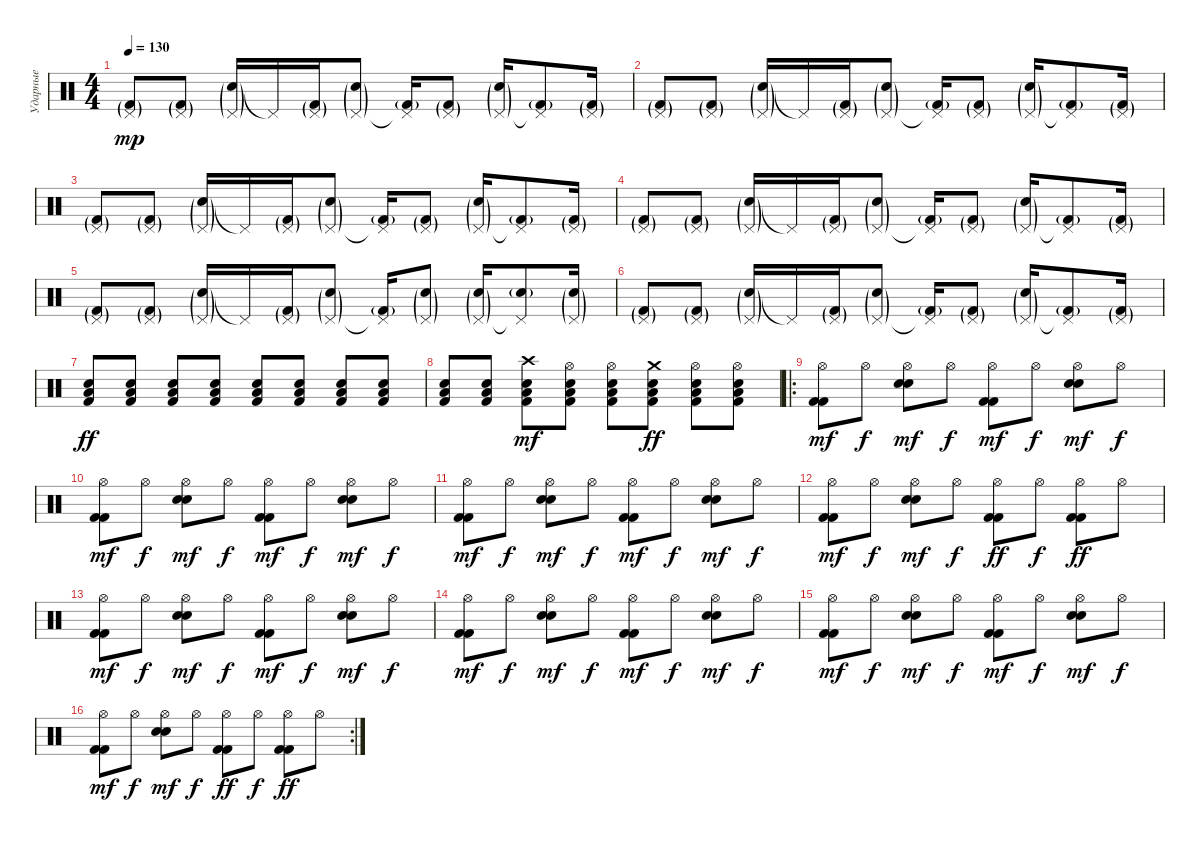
\track ("Ударные" "Ударные") {instrument percussion}
\staff {score}
\articulation defaults
\ts (4 4)
\tempo 130
\clef neutral
\ks c
("Kick (hit) 2"{g} "Pedal Hi-Hat (hit)"{g}).8{dy mp} ("Kick (hit) 2"{g} "Pedal Hi-Hat (hit)"{g}).8 ("Electric Snare (hit)"{g} "Pedal Hi-Hat (hit)"{g}).16 "Pedal Hi-Hat (hit)"{t}.16 ("Kick (hit) 2"{g} "Pedal Hi-Hat (hit)"{g}).16 ("Electric Snare (hit)"{g} "Pedal Hi-Hat (hit)"{g}).8 ("Kick (hit) 2"{g} "Pedal Hi-Hat (hit)"{t}).16 ("Kick (hit) 2"{g} "Pedal Hi-Hat (hit)"{g}).8 ("Electric Snare (hit)"{g} "Pedal Hi-Hat (hit)"{g}).16 ("Kick (hit) 2"{g} "Pedal Hi-Hat (hit)"{t}).8 ("Kick (hit) 2"{g} "Pedal Hi-Hat (hit)"{g}).16 |
("Kick (hit) 2"{g} "Pedal Hi-Hat (hit)"{g}).8 ("Kick (hit) 2"{g} "Pedal Hi-Hat (hit)"{g}).8 ("Electric Snare (hit)"{g} "Pedal Hi-Hat (hit)"{g}).16 "Pedal Hi-Hat (hit)"{t}.16 ("Kick (hit) 2"{g} "Pedal Hi-Hat (hit)"{g}).16 ("Electric Snare (hit)"{g} "Pedal Hi-Hat (hit)"{g}).8 ("Kick (hit) 2"{g} "Pedal Hi-Hat (hit)"{t}).16 ("Kick (hit) 2"{g} "Pedal Hi-Hat (hit)"{g}).8 ("Electric Snare (hit)"{g} "Pedal Hi-Hat (hit)"{g}).16 ("Kick (hit) 2"{g} "Pedal Hi-Hat (hit)"{t}).8 ("Kick (hit) 2"{g} "Pedal Hi-Hat (hit)"{g}).16 |
("Kick (hit) 2"{g} "Pedal Hi-Hat (hit)"{g}).8 ("Kick (hit) 2"{g} "Pedal Hi-Hat (hit)"{g}).8 ("Electric Snare (hit)"{g} "Pedal Hi-Hat (hit)"{g}).16 "Pedal Hi-Hat (hit)"{t}.16 ("Kick (hit) 2"{g} "Pedal Hi-Hat (hit)"{g}).16 ("Electric Snare (hit)"{g} "Pedal Hi-Hat (hit)"{g}).8 ("Kick (hit) 2"{g} "Pedal Hi-Hat (hit)"{t}).16 ("Kick (hit) 2"{g} "Pedal Hi-Hat (hit)"{g}).8 ("Electric Snare (hit)"{g} "Pedal Hi-Hat (hit)"{g}).16 ("Kick (hit) 2"{g} "Pedal Hi-Hat (hit)"{t}).8 ("Kick (hit) 2"{g} "Pedal Hi-Hat (hit)"{g}).16 |
("Kick (hit) 2"{g} "Pedal Hi-Hat (hit)"{g}).8 ("Kick (hit) 2"{g} "Pedal Hi-Hat (hit)"{g}).8 ("Electric Snare (hit)"{g} "Pedal Hi-Hat (hit)"{g}).16 "Pedal Hi-Hat (hit)"{t}.16 ("Kick (hit) 2"{g} "Pedal Hi-Hat (hit)"{g}).16 ("Electric Snare (hit)"{g} "Pedal Hi-Hat (hit)"{g}).8 ("Kick (hit) 2"{g} "Pedal Hi-Hat (hit)"{t}).16 ("Kick (hit) 2"{g} "Pedal Hi-Hat (hit)"{g}).8 ("Electric Snare (hit)"{g} "Pedal Hi-Hat (hit)"{g}).16 ("Kick (hit) 2"{g} "Pedal Hi-Hat (hit)"{t}).8 ("Kick (hit) 2"{g} "Pedal Hi-Hat (hit)"{g}).16 |
("Kick (hit) 2"{g} "Pedal Hi-Hat (hit)"{g}).8 ("Kick (hit) 2"{g} "Pedal Hi-Hat (hit)"{g}).8 ("Electric Snare (hit)"{g} "Pedal Hi-Hat (hit)"{g}).16 "Pedal Hi-Hat (hit)"{t}.16 ("Kick (hit) 2"{g} "Pedal Hi-Hat (hit)"{g}).16 ("Electric Snare (hit)"{g} "Pedal Hi-Hat (hit)"{g}).8 ("Kick (hit) 2"{g} "Pedal Hi-Hat (hit)"{t}).16 ("Electric Snare (hit)"{g} "Pedal Hi-Hat (hit)"{g}).8 ("Electric Snare (hit)"{g} "Pedal Hi-Hat (hit)"{g}).16 ("Electric Snare (hit)"{g} "Pedal Hi-Hat (hit)"{t}).8 ("Electric Snare (hit)"{g} "Pedal Hi-Hat (hit)"{g}).16 |
("Kick (hit) 2"{g} "Pedal Hi-Hat (hit)"{g}).8 ("Kick (hit) 2"{g} "Pedal Hi-Hat (hit)"{g}).8 ("Electric Snare (hit)"{g} "Pedal Hi-Hat (hit)"{g}).16 "Pedal Hi-Hat (hit)"{t}.16 ("Kick (hit) 2"{g} "Pedal Hi-Hat (hit)"{g}).16 ("Electric Snare (hit)"{g} "Pedal Hi-Hat (hit)"{g}).8 ("Kick (hit) 2"{g} "Pedal Hi-Hat (hit)"{t}).16 ("Kick (hit) 2"{g} "Pedal Hi-Hat (hit)"{g}).8 ("Electric Snare (hit)"{g} "Pedal Hi-Hat (hit)"{g}).16 ("Kick (hit) 2"{g} "Pedal Hi-Hat (hit)"{t}).8 ("Kick (hit) 2"{g} "Pedal Hi-Hat (hit)"{g}).16 |
("Electric Snare (hit)" "Kick (hit) 2" "Low Floor Tom (hit)").8{dy ff volume 3} ("Electric Snare (hit)" "Kick (hit) 2" "Low Floor Tom (hit)").8{volume 16} ("Electric Snare (hit)" "Kick (hit) 2" "Low Floor Tom (hit)").8 ("Electric Snare (hit)" "Kick (hit) 2" "Low Floor Tom (hit)").8 ("Electric Snare (hit)" "Kick (hit) 2" "Low Floor Tom (hit)").8 ("Electric Snare (hit)" "Kick (hit) 2" "Low Floor Tom (hit)").8 ("Electric Snare (hit)" "Kick (hit) 2" "Low Floor Tom (hit)").8 ("Electric Snare (hit)" "Kick (hit) 2" "Low Floor Tom (hit)").8 |
("Electric Snare (hit)" "Kick (hit) 2" "Low Floor Tom (hit)").8 ("Electric Snare (hit)" "Kick (hit) 2" "Low Floor Tom (hit)").8 ("Electric Snare (hit)" "Kick (hit) 2" "Low Floor Tom (hit)" "Crash high (hit)").8{dy mf} ("Electric Snare (hit)" "Kick (hit) 2" "Low Floor Tom (hit)" "Hi-Hat (open)").8 ("Electric Snare (hit)" "Kick (hit) 2" "Low Floor Tom (hit)" "Hi-Hat (open)").8 ("Electric Snare (hit)" "Kick (hit) 2" "Low Floor Tom (hit)" "Crash medium (hit)").8{dy ff} ("Electric Snare (hit)" "Kick (hit) 2" "Low Floor Tom (hit)" "Hi-Hat (open)").8 ("Electric Snare (hit)" "Kick (hit) 2" "Low Floor Tom (hit)" "Hi-Hat (open)").8 |
\ro
("Kick (hit) 2" "Kick (hit) 2" "Hi-Hat (open)").8{dy mf} "Hi-Hat (open)".8{dy f} ("Electric Snare (hit)" "Snare (hit) 2" "Hi-Hat (open)").8{dy mf} "Hi-Hat (open)".8{dy f} ("Kick (hit) 2" "Kick (hit) 2" "Hi-Hat (open)").8{dy mf} "Hi-Hat (open)".8{dy f} ("Electric Snare (hit)" "Snare (hit) 2" "Hi-Hat (open)").8{dy mf} "Hi-Hat (open)".8{dy f} |
("Kick (hit) 2" "Kick (hit) 2" "Hi-Hat (open)").8{dy mf} "Hi-Hat (open)".8{dy f} ("Electric Snare (hit)" "Snare (hit) 2" "Hi-Hat (open)").8{dy mf} "Hi-Hat (open)".8{dy f} ("Kick (hit) 2" "Kick (hit) 2" "Hi-Hat (open)").8{dy mf} "Hi-Hat (open)".8{dy f} ("Electric Snare (hit)" "Snare (hit) 2" "Hi-Hat (open)").8{dy mf} "Hi-Hat (open)".8{dy f} |
("Kick (hit) 2" "Kick (hit) 2" "Hi-Hat (open)").8{dy mf} "Hi-Hat (open)".8{dy f} ("Electric Snare (hit)" "Snare (hit) 2" "Hi-Hat (open)").8{dy mf} "Hi-Hat (open)".8{dy f} ("Kick (hit) 2" "Kick (hit) 2" "Hi-Hat (open)").8{dy mf} "Hi-Hat (open)".8{dy f} ("Electric Snare (hit)" "Snare (hit) 2" "Hi-Hat (open)").8{dy mf} "Hi-Hat (open)".8{dy f} |
("Kick (hit) 2" "Kick (hit) 2" "Hi-Hat (open)").8{dy mf} "Hi-Hat (open)".8{dy f} ("Electric Snare (hit)" "Snare (hit) 2" "Hi-Hat (open)").8{dy mf} "Hi-Hat (open)".8{dy f} ("Kick (hit) 2" "Kick (hit) 2" "Hi-Hat (open)").8{dy ff} "Hi-Hat (open)".8{dy f} ("Kick (hit) 2" "Kick (hit) 2" "Hi-Hat (open)").8{dy ff} "Hi-Hat (open)".8 |
("Kick (hit) 2" "Kick (hit) 2" "Hi-Hat (open)").8{dy mf} "Hi-Hat (open)".8{dy f} ("Electric Snare (hit)" "Snare (hit) 2" "Hi-Hat (open)").8{dy mf} "Hi-Hat (open)".8{dy f} ("Kick (hit) 2" "Kick (hit) 2" "Hi-Hat (open)").8{dy mf} "Hi-Hat (open)".8{dy f} ("Electric Snare (hit)" "Snare (hit) 2" "Hi-Hat (open)").8{dy mf} "Hi-Hat (open)".8{dy f} |
("Kick (hit) 2" "Kick (hit) 2" "Hi-Hat (open)").8{dy mf} "Hi-Hat (open)".8{dy f} ("Electric Snare (hit)" "Snare (hit) 2" "Hi-Hat (open)").8{dy mf} "Hi-Hat (open)".8{dy f} ("Kick (hit) 2" "Kick (hit) 2" "Hi-Hat (open)").8{dy mf} "Hi-Hat (open)".8{dy f} ("Electric Snare (hit)" "Snare (hit) 2" "Hi-Hat (open)").8{dy mf} "Hi-Hat (open)".8{dy f} |
("Kick (hit) 2" "Kick (hit) 2" "Hi-Hat (open)").8{dy mf} "Hi-Hat (open)".8{dy f} ("Electric Snare (hit)" "Snare (hit) 2" "Hi-Hat (open)").8{dy mf} "Hi-Hat (open)".8{dy f} ("Kick (hit) 2" "Kick (hit) 2" "Hi-Hat (open)").8{dy mf} "Hi-Hat (open)".8{dy f} ("Electric Snare (hit)" "Snare (hit) 2" "Hi-Hat (open)").8{dy mf} "Hi-Hat (open)".8{dy f} |
\rc 2
("Kick (hit) 2" "Kick (hit) 2" "Hi-Hat (open)").8{dy mf} "Hi-Hat (open)".8{dy f} ("Electric Snare (hit)" "Snare (hit) 2" "Hi-Hat (open)").8{dy mf} "Hi-Hat (open)".8{dy f} ("Kick (hit) 2" "Kick (hit) 2" "Hi-Hat (open)").8{dy ff} "Hi-Hat (open)".8{dy f} ("Kick (hit) 2" "Kick (hit) 2" "Hi-Hat (open)").8{dy ff} "Hi-Hat (open)".8
